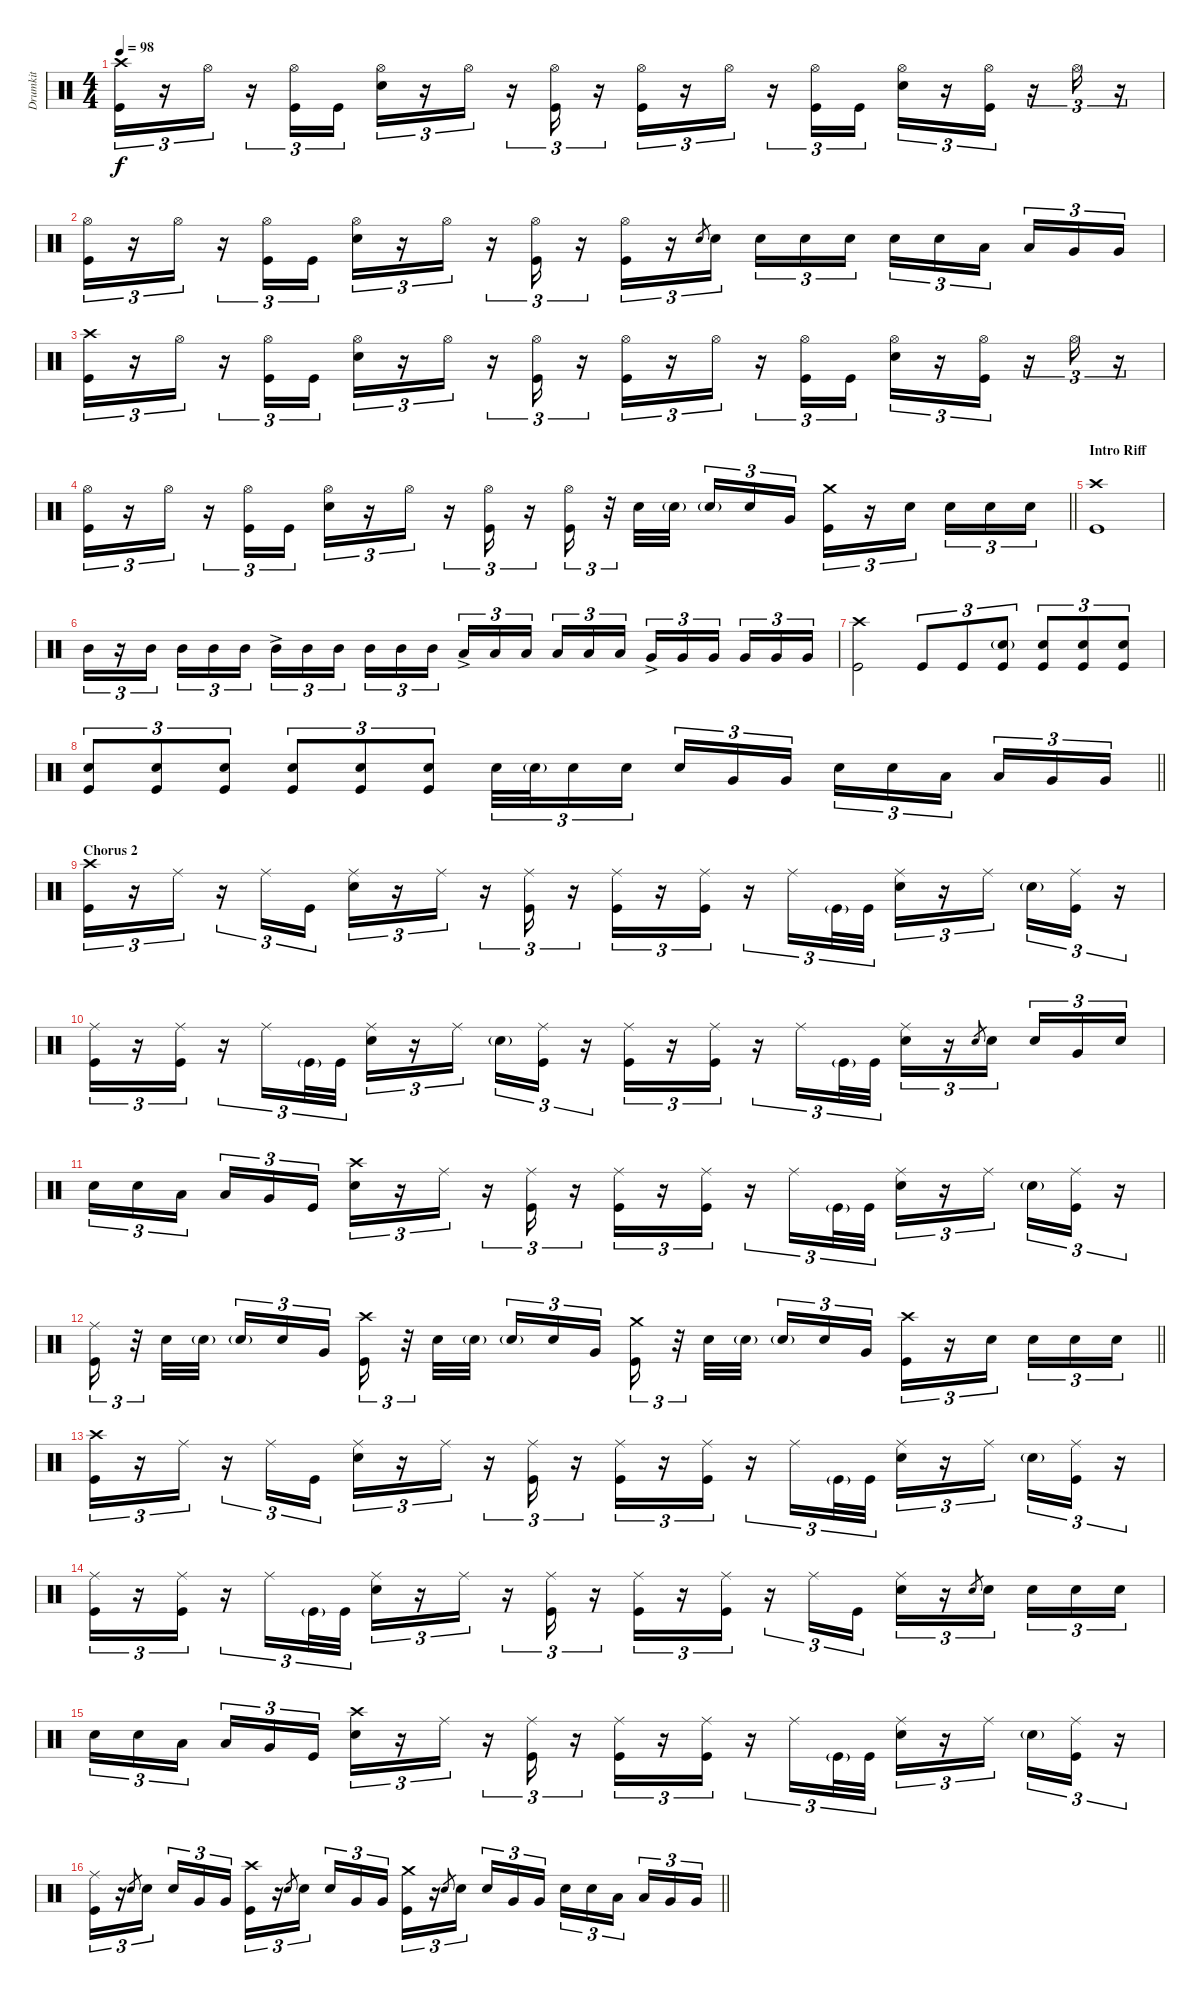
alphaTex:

\track ("Drumkit" "Drumkit") {instrument percussion}
\staff {score}
\articulation defaults
\ts (4 4)
\tempo 98
\clef neutral
\ks c
("Kick (hit)" "Crash high (hit)").16{tu (3 2) dy f} r.16{tu (3 2)} "Hi-Hat (open)".16{tu (3 2)} r.16{tu (3 2)} ("Hi-Hat (open)" "Kick (hit)").16{tu (3 2)} "Kick (hit)".16{tu (3 2)} ("Snare (hit) 2" "Hi-Hat (open)").16{tu (3 2)} r.16{tu (3 2)} "Hi-Hat (open)".16{tu (3 2)} r.16{tu (3 2)} ("Kick (hit)" "Hi-Hat (open)").16{tu (3 2)} r.16{tu (3 2)} ("Kick (hit)" "Hi-Hat (open)").16{tu (3 2)} r.16{tu (3 2)} "Hi-Hat (open)".16{tu (3 2)} r.16{tu (3 2)} ("Kick (hit)" "Hi-Hat (open)").16{tu (3 2)} "Kick (hit)".16{tu (3 2)} ("Snare (hit) 2" "Hi-Hat (open)").16{tu (3 2)} r.16{tu (3 2)} ("Hi-Hat (open)" "Kick (hit)").16{tu (3 2)} r.16{tu (3 2)} "Hi-Hat (open)".16{tu (3 2)} r.16{tu (3 2)} |
("Kick (hit)" "Hi-Hat (open)").16{tu (3 2)} r.16{tu (3 2)} "Hi-Hat (open)".16{tu (3 2)} r.16{tu (3 2)} ("Kick (hit)" "Hi-Hat (open)").16{tu (3 2)} "Kick (hit)".16{tu (3 2)} ("Snare (hit) 2" "Hi-Hat (open)").16{tu (3 2)} r.16{tu (3 2)} "Hi-Hat (open)".16{tu (3 2)} r.16{tu (3 2)} ("Kick (hit)" "Hi-Hat (open)").16{tu (3 2)} r.16{tu (3 2)} ("Kick (hit)" "Hi-Hat (open)").16{tu (3 2)} r.16{tu (3 2)} "Snare (hit)".8{gr} "Snare (hit) 2".16{tu (3 2)} "Snare (hit) 2".16{tu (3 2)} "Snare (hit) 2".16{tu (3 2)} "Snare (hit) 2".16{tu (3 2)} "Snare (hit) 2".16{tu (3 2)} "Snare (hit) 2".16{tu (3 2)} "Low Tom (hit)".16{tu (3 2)} "Low Tom (hit)".16{tu (3 2)} "Very Low Tom (hit)".16{tu (3 2)} "Very Low Tom (hit)".16{tu (3 2)} |
("Kick (hit)" "Crash high (hit)").16{tu (3 2)} r.16{tu (3 2)} "Hi-Hat (open)".16{tu (3 2)} r.16{tu (3 2)} ("Kick (hit)" "Hi-Hat (open)").16{tu (3 2)} "Kick (hit)".16{tu (3 2)} ("Snare (hit) 2" "Hi-Hat (open)").16{tu (3 2)} r.16{tu (3 2)} "Hi-Hat (open)".16{tu (3 2)} r.16{tu (3 2)} ("Kick (hit)" "Hi-Hat (open)").16{tu (3 2)} r.16{tu (3 2)} ("Kick (hit)" "Hi-Hat (open)").16{tu (3 2)} r.16{tu (3 2)} "Hi-Hat (open)".16{tu (3 2)} r.16{tu (3 2)} ("Kick (hit)" "Hi-Hat (open)").16{tu (3 2)} "Kick (hit)".16{tu (3 2)} ("Snare (hit) 2" "Hi-Hat (open)").16{tu (3 2)} r.16{tu (3 2)} ("Hi-Hat (open)" "Kick (hit)").16{tu (3 2)} r.16{tu (3 2)} "Hi-Hat (open)".16{tu (3 2)} r.16{tu (3 2)} |
\barLineRight lightlight
("Kick (hit)" "Hi-Hat (open)").16{tu (3 2)} r.16{tu (3 2)} "Hi-Hat (open)".16{tu (3 2)} r.16{tu (3 2)} ("Kick (hit)" "Hi-Hat (open)").16{tu (3 2)} "Kick (hit)".16{tu (3 2)} ("Snare (hit) 2" "Hi-Hat (open)").16{tu (3 2)} r.16{tu (3 2)} "Hi-Hat (open)".16{tu (3 2)} r.16{tu (3 2)} ("Kick (hit)" "Hi-Hat (open)").16{tu (3 2)} r.16{tu (3 2)} ("Kick (hit)" "Hi-Hat (open)").16{tu (3 2)} r.32{tu (3 2)} "Snare (hit) 2".32 "Snare (hit) 2"{g}.32 "Snare (hit) 2"{g}.16{tu (3 2)} "Snare (hit) 2".16{tu (3 2)} "Very Low Tom (hit)".16{tu (3 2)} ("Kick (hit)" "Crash medium (hit)").16{tu (3 2)} r.16{tu (3 2)} "Snare (hit) 2".16{tu (3 2)} "Snare (hit) 2".16{tu (3 2)} "Snare (hit) 2".16{tu (3 2)} "Snare (hit) 2".16{tu (3 2)} |
\section ("" "Intro Riff")
("Kick (hit)" "Crash high (hit)").1 |
"Mid Tom (hit)".16{tu (3 2)} r.16{tu (3 2)} "Mid Tom (hit)".16{tu (3 2)} "Mid Tom (hit)".16{tu (3 2)} "Mid Tom (hit)".16{tu (3 2)} "Mid Tom (hit)".16{tu (3 2)} "Mid Tom (hit)"{ac}.16{tu (3 2)} "Mid Tom (hit)".16{tu (3 2)} "Mid Tom (hit)".16{tu (3 2)} "Mid Tom (hit)".16{tu (3 2)} "Mid Tom (hit)".16{tu (3 2)} "Mid Tom (hit)".16{tu (3 2)} "Low Tom (hit)"{ac}.16{tu (3 2)} "Low Tom (hit)".16{tu (3 2)} "Low Tom (hit)".16{tu (3 2)} "Low Tom (hit)".16{tu (3 2)} "Low Tom (hit)".16{tu (3 2)} "Low Tom (hit)".16{tu (3 2)} "Very Low Tom (hit)"{ac}.16{tu (3 2)} "Very Low Tom (hit)".16{tu (3 2)} "Very Low Tom (hit)".16{tu (3 2)} "Very Low Tom (hit)".16{tu (3 2)} "Very Low Tom (hit)".16{tu (3 2)} "Very Low Tom (hit)".16{tu (3 2)} |
("Kick (hit)" "Crash high (hit)").2 "Kick (hit)".8{tu (3 2)} "Kick (hit)".8{tu (3 2)} ("Kick (hit)" "Snare (hit) 2"{g}).8{tu (3 2)} ("Kick (hit)" "Snare (hit) 2").8{tu (3 2)} ("Kick (hit)" "Snare (hit) 2").8{tu (3 2)} ("Kick (hit)" "Snare (hit) 2").8{tu (3 2)} |
\barLineRight lightlight
("Snare (hit) 2" "Kick (hit)").8{tu (3 2)} ("Snare (hit) 2" "Kick (hit)").8{tu (3 2)} ("Snare (hit) 2" "Kick (hit)").8{tu (3 2)} ("Snare (hit) 2" "Kick (hit)").8{tu (3 2)} ("Snare (hit) 2" "Kick (hit)").8{tu (3 2)} ("Snare (hit) 2" "Kick (hit)").8{tu (3 2)} "Snare (hit) 2".32{tu (3 2)} "Snare (hit) 2"{g}.32{tu (3 2)} "Snare (hit) 2".16{tu (3 2)} "Snare (hit) 2".16{tu (3 2)} "Snare (hit) 2".16{tu (3 2)} "Very Low Tom (hit)".16{tu (3 2)} "Very Low Tom (hit)".16{tu (3 2)} "Snare (hit) 2".16{tu (3 2)} "Snare (hit) 2".16{tu (3 2)} "Low Tom (hit)".16{tu (3 2)} "Low Tom (hit)".16{tu (3 2)} "Very Low Tom (hit)".16{tu (3 2)} "Very Low Tom (hit)".16{tu (3 2)} |
\section ("" "Chorus 2")
("Kick (hit)" "Crash high (hit)").16{tu (3 2)} r.16{tu (3 2)} "Ride (middle)".16{tu (3 2)} r.16{tu (3 2)} "Ride (middle)".16{tu (3 2)} "Kick (hit)".16{tu (3 2)} ("Snare (hit) 2" "Ride (middle)").16{tu (3 2)} r.16{tu (3 2)} "Ride (middle)".16{tu (3 2)} r.16{tu (3 2)} ("Kick (hit)" "Ride (middle)").16{tu (3 2)} r.16{tu (3 2)} ("Ride (middle)" "Kick (hit)").16{tu (3 2)} r.16{tu (3 2)} ("Ride (middle)" "Kick (hit)").16{tu (3 2)} r.16{tu (3 2)} "Ride (middle)".16{tu (3 2)} "Kick (hit)"{g}.32{tu (3 2)} "Kick (hit)".32{tu (3 2)} ("Ride (middle)" "Snare (hit) 2").16{tu (3 2)} r.16{tu (3 2)} "Ride (middle)".16{tu (3 2)} "Snare (hit) 2"{g}.16{tu (3 2)} ("Ride (middle)" "Kick (hit)").16{tu (3 2)} r.16{tu (3 2)} |
("Kick (hit)" "Ride (middle)").16{tu (3 2)} r.16{tu (3 2)} ("Ride (middle)" "Kick (hit)").16{tu (3 2)} r.16{tu (3 2)} "Ride (middle)".16{tu (3 2)} "Kick (hit)"{g}.32{tu (3 2)} "Kick (hit)".32{tu (3 2)} ("Snare (hit) 2" "Ride (middle)").16{tu (3 2)} r.16{tu (3 2)} "Ride (middle)".16{tu (3 2)} "Snare (hit) 2"{g}.16{tu (3 2)} ("Ride (middle)" "Kick (hit)").16{tu (3 2)} r.16{tu (3 2)} ("Kick (hit)" "Ride (middle)").16{tu (3 2)} r.16{tu (3 2)} ("Ride (middle)" "Kick (hit)").16{tu (3 2)} r.16{tu (3 2)} "Ride (middle)".16{tu (3 2)} "Kick (hit)"{g}.32{tu (3 2)} "Kick (hit)".32{tu (3 2)} ("Ride (middle)" "Snare (hit) 2").16{tu (3 2)} r.16{tu (3 2)} "Snare (hit)".8{gr} "Snare (hit) 2".16{tu (3 2)} "Snare (hit) 2".16{tu (3 2)} "Very Low Tom (hit)".16{tu (3 2)} "Snare (hit) 2".16{tu (3 2)} |
"Snare (hit) 2".16{tu (3 2)} "Snare (hit) 2".16{tu (3 2)} "Low Tom (hit)".16{tu (3 2)} "Low Tom (hit)".16{tu (3 2)} "Very Low Tom (hit)".16{tu (3 2)} "Kick (hit)".16{tu (3 2)} ("Snare (hit) 2" "Crash high (hit)").16{tu (3 2)} r.16{tu (3 2)} "Ride (middle)".16{tu (3 2)} r.16{tu (3 2)} ("Kick (hit)" "Ride (middle)").16{tu (3 2)} r.16{tu (3 2)} ("Kick (hit)" "Ride (middle)").16{tu (3 2)} r.16{tu (3 2)} ("Ride (middle)" "Kick (hit)").16{tu (3 2)} r.16{tu (3 2)} "Ride (middle)".16{tu (3 2)} "Kick (hit)"{g}.32{tu (3 2)} "Kick (hit)".32{tu (3 2)} ("Ride (middle)" "Snare (hit) 2").16{tu (3 2)} r.16{tu (3 2)} "Ride (middle)".16{tu (3 2)} "Snare (hit) 2"{g}.16{tu (3 2)} ("Ride (middle)" "Kick (hit)").16{tu (3 2)} r.16{tu (3 2)} |
\barLineRight lightlight
("Kick (hit)" "Ride (middle)").16{tu (3 2)} r.32{tu (3 2)} "Snare (hit) 2".32 "Snare (hit) 2"{g}.32 "Snare (hit) 2"{g}.16{tu (3 2)} "Snare (hit) 2".16{tu (3 2)} "Very Low Tom (hit)".16{tu (3 2)} ("Kick (hit)" "Crash high (hit)").16{tu (3 2)} r.32{tu (3 2)} "Snare (hit) 2".32 "Snare (hit) 2"{g}.32 "Snare (hit) 2"{g}.16{tu (3 2)} "Snare (hit) 2".16{tu (3 2)} "Very Low Tom (hit)".16{tu (3 2)} ("Kick (hit)" "Crash medium (hit)").16{tu (3 2)} r.32{tu (3 2)} "Snare (hit) 2".32 "Snare (hit) 2"{g}.32 "Snare (hit) 2"{g}.16{tu (3 2)} "Snare (hit) 2".16{tu (3 2)} "Very Low Tom (hit)".16{tu (3 2)} ("Kick (hit)" "Crash high (hit)").16{tu (3 2)} r.16{tu (3 2)} "Snare (hit) 2".16{tu (3 2)} "Snare (hit) 2".16{tu (3 2)} "Snare (hit) 2".16{tu (3 2)} "Snare (hit) 2".16{tu (3 2)} |
("Kick (hit)" "Crash high (hit)").16{tu (3 2)} r.16{tu (3 2)} "Ride (middle)".16{tu (3 2)} r.16{tu (3 2)} "Ride (middle)".16{tu (3 2)} "Kick (hit)".16{tu (3 2)} ("Snare (hit) 2" "Ride (middle)").16{tu (3 2)} r.16{tu (3 2)} "Ride (middle)".16{tu (3 2)} r.16{tu (3 2)} ("Kick (hit)" "Ride (middle)").16{tu (3 2)} r.16{tu (3 2)} ("Ride (middle)" "Kick (hit)").16{tu (3 2)} r.16{tu (3 2)} ("Ride (middle)" "Kick (hit)").16{tu (3 2)} r.16{tu (3 2)} "Ride (middle)".16{tu (3 2)} "Kick (hit)"{g}.32{tu (3 2)} "Kick (hit)".32{tu (3 2)} ("Ride (middle)" "Snare (hit) 2").16{tu (3 2)} r.16{tu (3 2)} "Ride (middle)".16{tu (3 2)} "Snare (hit) 2"{g}.16{tu (3 2)} ("Ride (middle)" "Kick (hit)").16{tu (3 2)} r.16{tu (3 2)} |
("Kick (hit)" "Ride (middle)").16{tu (3 2)} r.16{tu (3 2)} ("Ride (middle)" "Kick (hit)").16{tu (3 2)} r.16{tu (3 2)} "Ride (middle)".16{tu (3 2)} "Kick (hit)"{g}.32{tu (3 2)} "Kick (hit)".32{tu (3 2)} ("Snare (hit) 2" "Ride (middle)").16{tu (3 2)} r.16{tu (3 2)} "Ride (middle)".16{tu (3 2)} r.16{tu (3 2)} ("Ride (middle)" "Kick (hit)").16{tu (3 2)} r.16{tu (3 2)} ("Kick (hit)" "Ride (middle)").16{tu (3 2)} r.16{tu (3 2)} ("Kick (hit)" "Ride (middle)").16{tu (3 2)} r.16{tu (3 2)} "Ride (middle)".16{tu (3 2)} "Kick (hit)".16{tu (3 2)} ("Ride (middle)" "Snare (hit) 2").16{tu (3 2)} r.16{tu (3 2)} "Snare (hit)".8{gr} "Snare (hit) 2".16{tu (3 2)} "Snare (hit) 2".16{tu (3 2)} "Snare (hit) 2".16{tu (3 2)} "Snare (hit) 2".16{tu (3 2)} |
"Snare (hit) 2".16{tu (3 2)} "Snare (hit) 2".16{tu (3 2)} "Low Tom (hit)".16{tu (3 2)} "Low Tom (hit)".16{tu (3 2)} "Very Low Tom (hit)".16{tu (3 2)} "Kick (hit)".16{tu (3 2)} ("Snare (hit) 2" "Crash high (hit)").16{tu (3 2)} r.16{tu (3 2)} "Ride (middle)".16{tu (3 2)} r.16{tu (3 2)} ("Kick (hit)" "Ride (middle)").16{tu (3 2)} r.16{tu (3 2)} ("Kick (hit)" "Ride (middle)").16{tu (3 2)} r.16{tu (3 2)} ("Ride (middle)" "Kick (hit)").16{tu (3 2)} r.16{tu (3 2)} "Ride (middle)".16{tu (3 2)} "Kick (hit)"{g}.32{tu (3 2)} "Kick (hit)".32{tu (3 2)} ("Ride (middle)" "Snare (hit) 2").16{tu (3 2)} r.16{tu (3 2)} "Ride (middle)".16{tu (3 2)} "Snare (hit) 2"{g}.16{tu (3 2)} ("Ride (middle)" "Kick (hit)").16{tu (3 2)} r.16{tu (3 2)} |
\barLineRight lightlight
("Kick (hit)" "Ride (middle)").16{tu (3 2)} r.16{tu (3 2)} "Snare (hit)".8{gr} "Snare (hit) 2".16{tu (3 2)} "Snare (hit) 2".16{tu (3 2)} "Very Low Tom (hit)".16{tu (3 2)} "Very Low Tom (hit)".16{tu (3 2)} ("Kick (hit)" "Crash high (hit)").16{tu (3 2)} r.16{tu (3 2)} "Snare (hit)".8{gr} "Snare (hit) 2".16{tu (3 2)} "Snare (hit) 2".16{tu (3 2)} "Very Low Tom (hit)".16{tu (3 2)} "Very Low Tom (hit)".16{tu (3 2)} ("Kick (hit)" "Crash medium (hit)").16{tu (3 2)} r.16{tu (3 2)} "Snare (hit)".8{gr} "Snare (hit) 2".16{tu (3 2)} "Snare (hit) 2".16{tu (3 2)} "Very Low Tom (hit)".16{tu (3 2)} "Very Low Tom (hit)".16{tu (3 2)} "Snare (hit) 2".16{tu (3 2)} "Snare (hit) 2".16{tu (3 2)} "Low Tom (hit)".16{tu (3 2)} "Low Tom (hit)".16{tu (3 2)} "Very Low Tom (hit)".16{tu (3 2)} "Very Low Tom (hit)".16{tu (3 2)}
